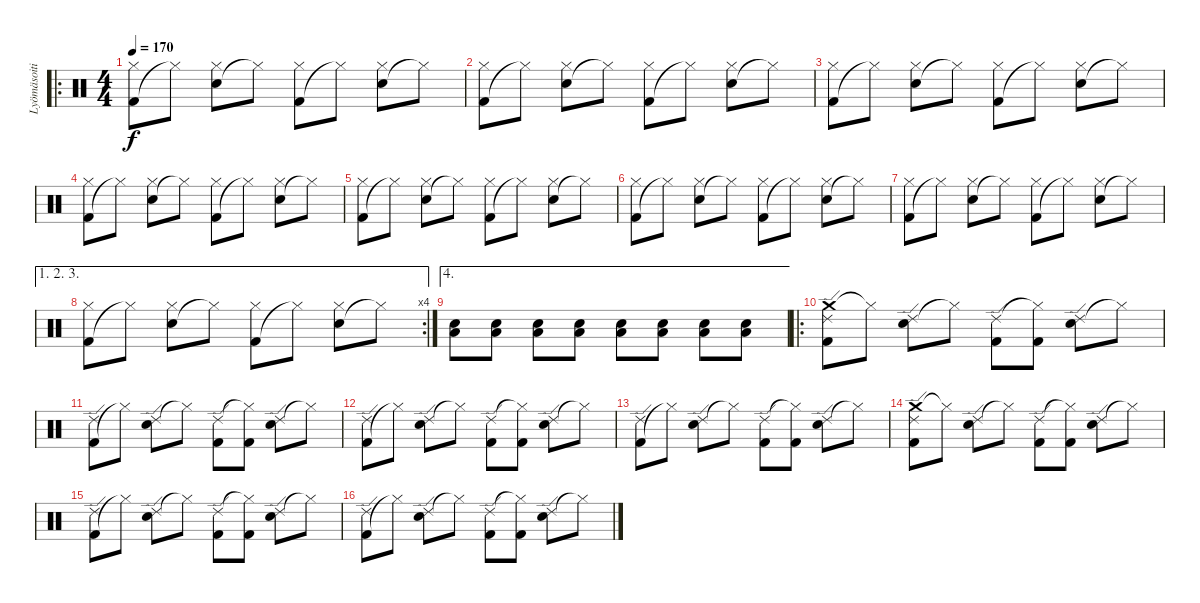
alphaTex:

\track ("Lyömäsoitin" "Lyömäsoiti") {instrument percussion}
\staff {score}
\articulation defaults
\ro
\ts (4 4)
\tempo 170
\clef neutral
\ks c
("Kick (hit) 2" "Hi-Hat (closed)").8{dy f} "Hi-Hat (closed)"{t}.8 ("Electric Snare (hit)" "Hi-Hat (closed)").8 "Hi-Hat (closed)"{t}.8 ("Kick (hit) 2" "Hi-Hat (closed)").8 "Hi-Hat (closed)"{t}.8 ("Electric Snare (hit)" "Hi-Hat (closed)").8 "Hi-Hat (closed)"{t}.8 |
("Kick (hit) 2" "Hi-Hat (closed)").8 "Hi-Hat (closed)"{t}.8 ("Electric Snare (hit)" "Hi-Hat (closed)").8 "Hi-Hat (closed)"{t}.8 ("Kick (hit) 2" "Hi-Hat (closed)").8 "Hi-Hat (closed)"{t}.8 ("Electric Snare (hit)" "Hi-Hat (closed)").8 "Hi-Hat (closed)"{t}.8 |
("Kick (hit) 2" "Hi-Hat (closed)").8 "Hi-Hat (closed)"{t}.8 ("Electric Snare (hit)" "Hi-Hat (closed)").8 "Hi-Hat (closed)"{t}.8 ("Kick (hit) 2" "Hi-Hat (closed)").8 "Hi-Hat (closed)"{t}.8 ("Electric Snare (hit)" "Hi-Hat (closed)").8 "Hi-Hat (closed)"{t}.8 |
("Kick (hit) 2" "Hi-Hat (closed)").8 "Hi-Hat (closed)"{t}.8 ("Electric Snare (hit)" "Hi-Hat (closed)").8 "Hi-Hat (closed)"{t}.8 ("Kick (hit) 2" "Hi-Hat (closed)").8 "Hi-Hat (closed)"{t}.8 ("Electric Snare (hit)" "Hi-Hat (closed)").8 "Hi-Hat (closed)"{t}.8 |
("Kick (hit) 2" "Hi-Hat (closed)").8 "Hi-Hat (closed)"{t}.8 ("Electric Snare (hit)" "Hi-Hat (closed)").8 "Hi-Hat (closed)"{t}.8 ("Kick (hit) 2" "Hi-Hat (closed)").8 "Hi-Hat (closed)"{t}.8 ("Electric Snare (hit)" "Hi-Hat (closed)").8 "Hi-Hat (closed)"{t}.8 |
("Kick (hit) 2" "Hi-Hat (closed)").8 "Hi-Hat (closed)"{t}.8 ("Electric Snare (hit)" "Hi-Hat (closed)").8 "Hi-Hat (closed)"{t}.8 ("Kick (hit) 2" "Hi-Hat (closed)").8 "Hi-Hat (closed)"{t}.8 ("Electric Snare (hit)" "Hi-Hat (closed)").8 "Hi-Hat (closed)"{t}.8 |
("Kick (hit) 2" "Hi-Hat (closed)").8 "Hi-Hat (closed)"{t}.8 ("Electric Snare (hit)" "Hi-Hat (closed)").8 "Hi-Hat (closed)"{t}.8 ("Kick (hit) 2" "Hi-Hat (closed)").8 "Hi-Hat (closed)"{t}.8 ("Electric Snare (hit)" "Hi-Hat (closed)").8 "Hi-Hat (closed)"{t}.8 |
\ae (1 2 3)
\rc 4
("Kick (hit) 2" "Hi-Hat (closed)").8 "Hi-Hat (closed)"{t}.8 ("Electric Snare (hit)" "Hi-Hat (closed)").8 "Hi-Hat (closed)"{t}.8 ("Kick (hit) 2" "Hi-Hat (closed)").8 "Hi-Hat (closed)"{t}.8 ("Electric Snare (hit)" "Hi-Hat (closed)").8 "Hi-Hat (closed)"{t}.8 |
\ae 4
("Electric Snare (hit)" "Low Tom (hit)").8 ("Electric Snare (hit)" "Low Tom (hit)").8 ("Electric Snare (hit)" "Low Tom (hit)").8 ("Electric Snare (hit)" "Low Tom (hit)").8 ("Electric Snare (hit)" "Low Tom (hit)").8 ("Electric Snare (hit)" "Low Tom (hit)").8 ("Electric Snare (hit)" "Low Tom (hit)").8 ("Electric Snare (hit)" "Low Tom (hit)").8 |
\ro
("Crash medium (hit)" "Kick (hit) 2" "Ride (edge) 2").8 "Hi-Hat (closed)"{t}.8 ("Electric Snare (hit)" "Ride (edge) 2").8 "Hi-Hat (closed)"{t}.8 ("Kick (hit) 2" "Ride (edge) 2").8 ("Kick (hit) 2" "Hi-Hat (closed)"{t}).8 ("Electric Snare (hit)" "Ride (edge) 2").8 "Hi-Hat (closed)"{t}.8 |
("Kick (hit) 2" "Ride (edge) 2").8 "Hi-Hat (closed)"{t}.8 ("Electric Snare (hit)" "Ride (edge) 2").8 "Hi-Hat (closed)"{t}.8 ("Kick (hit) 2" "Ride (edge) 2").8 ("Kick (hit) 2" "Hi-Hat (closed)"{t}).8 ("Electric Snare (hit)" "Ride (edge) 2").8 "Hi-Hat (closed)"{t}.8 |
("Kick (hit) 2" "Ride (edge) 2").8 "Hi-Hat (closed)"{t}.8 ("Electric Snare (hit)" "Ride (edge) 2").8 "Hi-Hat (closed)"{t}.8 ("Kick (hit) 2" "Ride (edge) 2").8 ("Kick (hit) 2" "Hi-Hat (closed)"{t}).8 ("Electric Snare (hit)" "Ride (edge) 2").8 "Hi-Hat (closed)"{t}.8 |
("Kick (hit) 2" "Ride (edge) 2").8 "Hi-Hat (closed)"{t}.8 ("Electric Snare (hit)" "Ride (edge) 2").8 "Hi-Hat (closed)"{t}.8 ("Kick (hit) 2" "Ride (edge) 2").8 ("Kick (hit) 2" "Hi-Hat (closed)"{t}).8 ("Electric Snare (hit)" "Ride (edge) 2").8 "Hi-Hat (closed)"{t}.8 |
("Crash medium (hit)" "Kick (hit) 2" "Ride (edge) 2").8 "Hi-Hat (closed)"{t}.8 ("Electric Snare (hit)" "Ride (edge) 2").8 "Hi-Hat (closed)"{t}.8 ("Kick (hit) 2" "Ride (edge) 2").8 ("Kick (hit) 2" "Hi-Hat (closed)"{t}).8 ("Electric Snare (hit)" "Ride (edge) 2").8 "Hi-Hat (closed)"{t}.8 |
("Kick (hit) 2" "Ride (edge) 2").8 "Hi-Hat (closed)"{t}.8 ("Electric Snare (hit)" "Ride (edge) 2").8 "Hi-Hat (closed)"{t}.8 ("Kick (hit) 2" "Ride (edge) 2").8 ("Kick (hit) 2" "Hi-Hat (closed)"{t}).8 ("Electric Snare (hit)" "Ride (edge) 2").8 "Hi-Hat (closed)"{t}.8 |
("Kick (hit) 2" "Ride (edge) 2").8 "Hi-Hat (closed)"{t}.8 ("Electric Snare (hit)" "Ride (edge) 2").8 "Hi-Hat (closed)"{t}.8 ("Kick (hit) 2" "Ride (edge) 2").8 ("Kick (hit) 2" "Hi-Hat (closed)"{t}).8 ("Electric Snare (hit)" "Ride (edge) 2").8 "Hi-Hat (closed)"{t}.8
